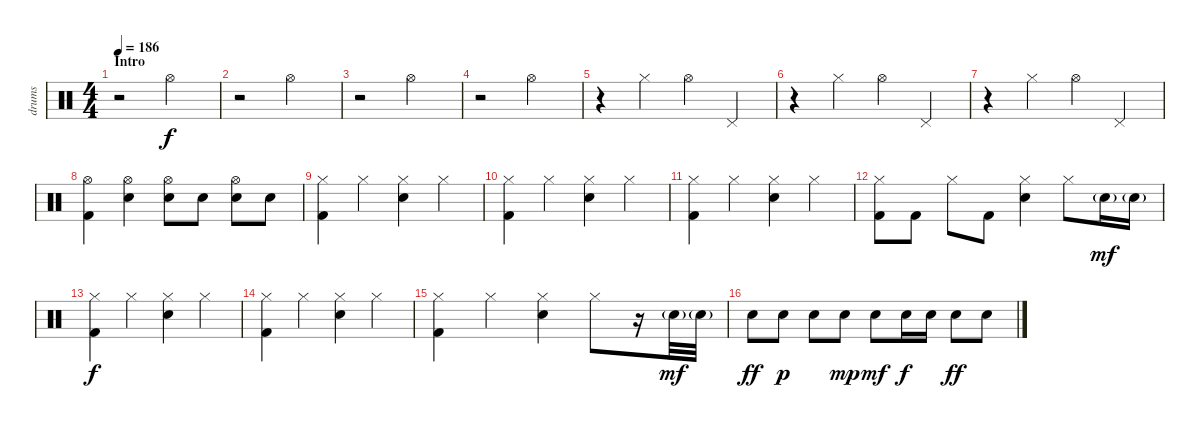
\track ("drums" "drums") {instrument percussion}
\staff {score}
\articulation defaults
\ts (4 4)
\section ("" "Intro")
\tempo 186
\clef neutral
\ks c
r.2{dy f} "Hi-Hat (open)".2 |
r.2 "Hi-Hat (open)".2 |
r.2 "Hi-Hat (open)".2 |
r.2 "Hi-Hat (open)".2 |
r.4 "Hi-Hat (closed)".4 "Hi-Hat (open)".4 "Pedal Hi-Hat (hit)".4 |
r.4 "Hi-Hat (closed)".4 "Hi-Hat (open)".4 "Pedal Hi-Hat (hit)".4 |
r.4 "Hi-Hat (closed)".4 "Hi-Hat (open)".4 "Pedal Hi-Hat (hit)".4 |
("Hi-Hat (open)" "Kick (hit) 2").4 ("Hi-Hat (open)" "Electric Snare (hit)").4 ("Hi-Hat (open)" "Electric Snare (hit)").8 "Electric Snare (hit)".8 ("Hi-Hat (open)" "Electric Snare (hit)").8 "Electric Snare (hit)".8 |
("Hi-Hat (closed)" "Kick (hit) 2").4 "Hi-Hat (closed)".4 ("Hi-Hat (closed)" "Electric Snare (hit)").4 "Hi-Hat (closed)".4 |
("Hi-Hat (closed)" "Kick (hit) 2").4 "Hi-Hat (closed)".4 ("Hi-Hat (closed)" "Electric Snare (hit)").4 "Hi-Hat (closed)".4 |
("Hi-Hat (closed)" "Kick (hit) 2").4 "Hi-Hat (closed)".4 ("Hi-Hat (closed)" "Electric Snare (hit)").4 "Hi-Hat (closed)".4 |
("Hi-Hat (closed)" "Kick (hit) 2").8 "Kick (hit) 2".8 "Hi-Hat (closed)".8 "Kick (hit) 2".8 ("Hi-Hat (closed)" "Electric Snare (hit)").4 "Hi-Hat (closed)".8 "Electric Snare (hit)"{g}.16{dy mf} "Electric Snare (hit)"{g}.16 |
("Hi-Hat (closed)" "Kick (hit) 2").4{dy f} "Hi-Hat (closed)".4 ("Hi-Hat (closed)" "Electric Snare (hit)").4 "Hi-Hat (closed)".4 |
("Hi-Hat (closed)" "Kick (hit) 2").4 "Hi-Hat (closed)".4 ("Hi-Hat (closed)" "Electric Snare (hit)").4 "Hi-Hat (closed)".4 |
("Hi-Hat (closed)" "Kick (hit) 2").4 "Hi-Hat (closed)".4 ("Hi-Hat (closed)" "Electric Snare (hit)").4 "Hi-Hat (closed)".8 r.16 "Electric Snare (hit)"{g}.32{dy mf} "Electric Snare (hit)"{g}.32 |
"Electric Snare (hit)".8{dy ff} "Electric Snare (hit)".8{dy p} "Electric Snare (hit)".8 "Electric Snare (hit)".8{dy mp} "Electric Snare (hit)".8{dy mf} "Electric Snare (hit)".16{dy f} "Electric Snare (hit)".16 "Electric Snare (hit)".8{dy ff} "Electric Snare (hit)".8
